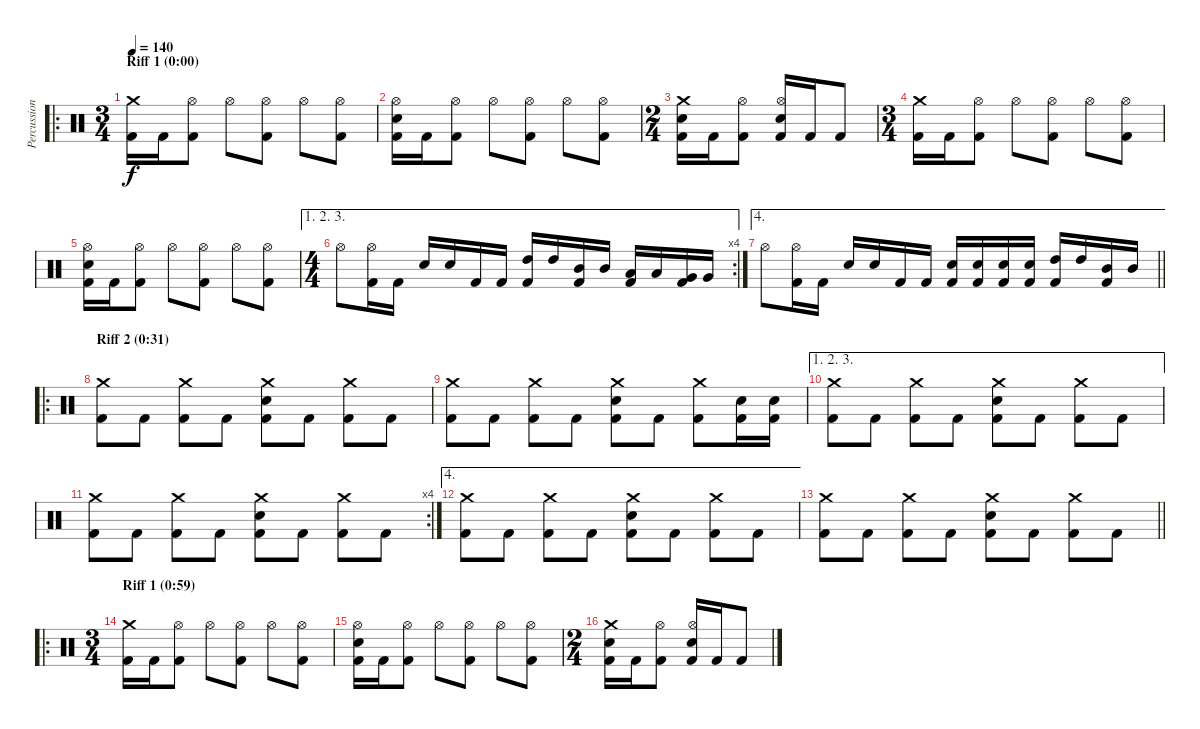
\track ("Percussion" "Percussion") {instrument percussion}
\staff {score}
\articulation defaults
\ro
\ts (3 4)
\section ("" "Riff 1 (0:00)")
\tempo 140
\clef neutral
\ks c
("Crash medium (hit)" "Kick (hit) 2").16{dy f} "Kick (hit) 2".16 ("Hi-Hat (open)" "Kick (hit) 2").8 "Hi-Hat (open)".8 ("Hi-Hat (open)" "Kick (hit) 2").8 "Hi-Hat (open)".8 ("Hi-Hat (open)" "Kick (hit) 2").8 |
("Hi-Hat (open)" "Electric Snare (hit)" "Kick (hit) 2").16 "Kick (hit) 2".16 ("Hi-Hat (open)" "Kick (hit) 2").8 "Hi-Hat (open)".8 ("Hi-Hat (open)" "Kick (hit) 2").8 "Hi-Hat (open)".8 ("Hi-Hat (open)" "Kick (hit) 2").8 |
\ts (2 4)
("Crash medium (hit)" "Electric Snare (hit)" "Kick (hit) 2").16 "Kick (hit) 2".16 ("Hi-Hat (open)" "Kick (hit) 2").8 ("Hi-Hat (open)" "Electric Snare (hit)" "Kick (hit) 2").16 "Kick (hit) 2".16 "Kick (hit) 2".8 |
\ts (3 4)
("Crash medium (hit)" "Kick (hit) 2").16 "Kick (hit) 2".16 ("Hi-Hat (open)" "Kick (hit) 2").8 "Hi-Hat (open)".8 ("Hi-Hat (open)" "Kick (hit) 2").8 "Hi-Hat (open)".8 ("Hi-Hat (open)" "Kick (hit) 2").8 |
("Hi-Hat (open)" "Electric Snare (hit)" "Kick (hit) 2").16 "Kick (hit) 2".16 ("Hi-Hat (open)" "Kick (hit) 2").8 "Hi-Hat (open)".8 ("Hi-Hat (open)" "Kick (hit) 2").8 "Hi-Hat (open)".8 ("Hi-Hat (open)" "Kick (hit) 2").8 |
\ae (1 2 3)
\rc 4
\ts (4 4)
"Hi-Hat (open)".8 ("Hi-Hat (open)" "Kick (hit) 2").16 "Kick (hit) 2".16 "Electric Snare (hit)".16 "Electric Snare (hit)".16 "Kick (hit) 2".16 "Kick (hit) 2".16 ("High Tom (hit)" "Kick (hit) 2").16 "High Tom (hit)".16 ("Mid Tom (hit)" "Kick (hit) 2").16 "Mid Tom (hit)".16 ("Low Tom (hit)" "Kick (hit) 2").16 "Low Tom (hit)".16 ("Very Low Tom (hit)" "Kick (hit) 2").16 "Very Low Tom (hit)".16 |
\ae 4
\barLineRight lightlight "Hi-Hat (open)".8
("Hi-Hat (open)" "Kick (hit) 2").16 "Kick (hit) 2".16 "Electric Snare (hit)".16 "Electric Snare (hit)".16 "Kick (hit) 2".16 "Kick (hit) 2".16 ("Electric Snare (hit)" "Kick (hit) 2").16 ("Electric Snare (hit)" "Kick (hit) 2").16 ("Electric Snare (hit)" "Kick (hit) 2").16 ("Electric Snare (hit)" "Kick (hit) 2").16 ("High Tom (hit)" "Kick (hit) 2").16 "High Tom (hit)".16 ("Mid Tom (hit)" "Kick (hit) 2").16 "Mid Tom (hit)".16 |
\ro
\section ("" "Riff 2 (0:31)")
("Crash medium (hit)" "Kick (hit) 2").8 "Kick (hit) 2".8 ("Crash medium (hit)" "Kick (hit) 2").8 "Kick (hit) 2".8 ("Crash medium (hit)" "Electric Snare (hit)" "Kick (hit) 2").8 "Kick (hit) 2".8 ("Crash medium (hit)" "Kick (hit) 2").8 "Kick (hit) 2".8 |
("Crash medium (hit)" "Kick (hit) 2").8 "Kick (hit) 2".8 ("Crash medium (hit)" "Kick (hit) 2").8 "Kick (hit) 2".8 ("Crash medium (hit)" "Electric Snare (hit)" "Kick (hit) 2").8 "Kick (hit) 2".8 ("Crash medium (hit)" "Kick (hit) 2").8 ("Electric Snare (hit)" "Kick (hit) 2").16 ("Electric Snare (hit)" "Kick (hit) 2").16 |
\ae (1 2 3)
("Crash medium (hit)" "Kick (hit) 2").8 "Kick (hit) 2".8 ("Crash medium (hit)" "Kick (hit) 2").8 "Kick (hit) 2".8 ("Crash medium (hit)" "Electric Snare (hit)" "Kick (hit) 2").8 "Kick (hit) 2".8 ("Crash medium (hit)" "Kick (hit) 2").8 "Kick (hit) 2".8 |
\rc 4
("Crash medium (hit)" "Kick (hit) 2").8 "Kick (hit) 2".8 ("Crash medium (hit)" "Kick (hit) 2").8 "Kick (hit) 2".8 ("Crash medium (hit)" "Electric Snare (hit)" "Kick (hit) 2").8 "Kick (hit) 2".8 ("Crash medium (hit)" "Kick (hit) 2").8 "Kick (hit) 2".8 |
\ae 4
("Crash medium (hit)" "Kick (hit) 2").8 "Kick (hit) 2".8 ("Crash medium (hit)" "Kick (hit) 2").8 "Kick (hit) 2".8 ("Crash medium (hit)" "Electric Snare (hit)" "Kick (hit) 2").8 "Kick (hit) 2".8 ("Crash medium (hit)" "Kick (hit) 2").8 "Kick (hit) 2".8 |
\barLineRight lightlight
("Crash medium (hit)" "Kick (hit) 2").8 "Kick (hit) 2".8 ("Crash medium (hit)" "Kick (hit) 2").8 "Kick (hit) 2".8 ("Crash medium (hit)" "Electric Snare (hit)" "Kick (hit) 2").8 "Kick (hit) 2".8 ("Crash medium (hit)" "Kick (hit) 2").8 "Kick (hit) 2".8 |
\ro
\ts (3 4)
\section ("" "Riff 1 (0:59)")
("Crash medium (hit)" "Kick (hit) 2").16 "Kick (hit) 2".16 ("Hi-Hat (open)" "Kick (hit) 2").8 "Hi-Hat (open)".8 ("Hi-Hat (open)" "Kick (hit) 2").8 "Hi-Hat (open)".8 ("Hi-Hat (open)" "Kick (hit) 2").8 |
("Hi-Hat (open)" "Electric Snare (hit)" "Kick (hit) 2").16 "Kick (hit) 2".16 ("Hi-Hat (open)" "Kick (hit) 2").8 "Hi-Hat (open)".8 ("Hi-Hat (open)" "Kick (hit) 2").8 "Hi-Hat (open)".8 ("Hi-Hat (open)" "Kick (hit) 2").8 |
\ts (2 4)
("Crash medium (hit)" "Electric Snare (hit)" "Kick (hit) 2").16 "Kick (hit) 2".16 ("Hi-Hat (open)" "Kick (hit) 2").8 ("Hi-Hat (open)" "Electric Snare (hit)" "Kick (hit) 2").16 "Kick (hit) 2".16 "Kick (hit) 2".8
